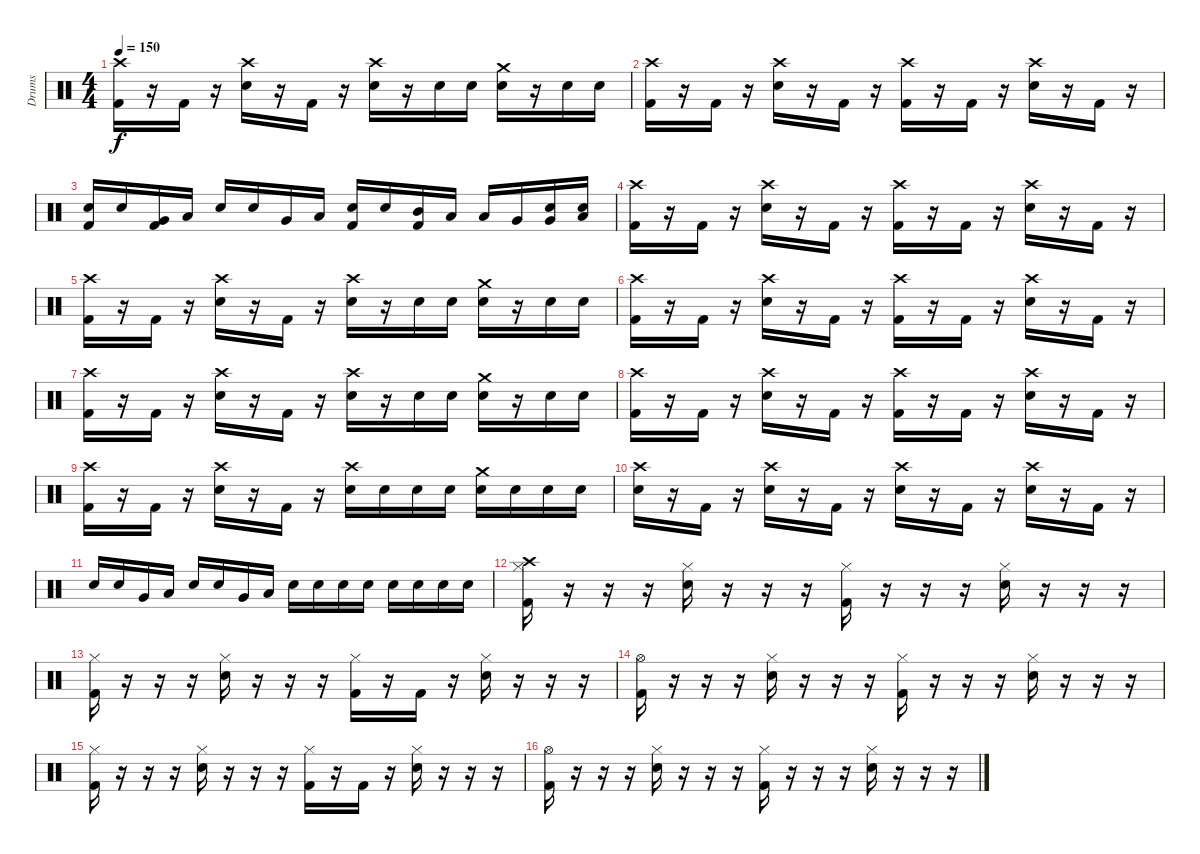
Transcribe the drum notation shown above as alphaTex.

\track ("Drums" "Drums") {instrument percussion}
\staff {score}
\articulation defaults
\ts (4 4)
\tempo 150
\clef neutral
\ks c
("Crash high (hit)" "Kick (hit) 2").16{dy f} r.16 "Kick (hit) 2".16 r.16 ("Crash high (hit)" "Snare (hit) 2").16 r.16 "Kick (hit) 2".16 r.16 ("Crash high (hit)" "Snare (hit) 2").16 r.16 "Snare (hit) 2".16 "Snare (hit) 2".16 ("Crash medium (hit)" "Snare (hit) 2").16 r.16 "Snare (hit) 2".16 "Snare (hit) 2".16 |
("Crash high (hit)" "Kick (hit) 2").16 r.16 "Kick (hit) 2".16 r.16 ("Crash high (hit)" "Snare (hit) 2").16 r.16 "Kick (hit) 2".16 r.16 ("Crash high (hit)" "Kick (hit) 2").16 r.16 "Kick (hit) 2".16 r.16 ("Crash high (hit)" "Snare (hit) 2").16 r.16 "Kick (hit) 2".16 r.16 |
("Snare (hit) 2" "Kick (hit) 2").16 "Snare (hit) 2".16 ("Very Low Tom (hit)" "Kick (hit) 2").16 "Low Floor Tom (hit)".16 "Snare (hit) 2".16 "Snare (hit) 2".16 "Very Low Tom (hit)".16 "Low Floor Tom (hit)".16 ("Snare (hit) 2" "Kick (hit) 2").16 "Snare (hit) 2".16 ("Mid Tom (hit)" "Kick (hit) 2").16 "Low Tom (hit)".16 "Low Tom (hit)".16 "Very Low Tom (hit)".16 ("Very Low Tom (hit)" "Snare (hit) 2").16 ("Low Floor Tom (hit)" "Snare (hit) 2").16 |
("Crash high (hit)" "Kick (hit) 2").16 r.16 "Kick (hit) 2".16 r.16 ("Crash high (hit)" "Snare (hit) 2").16 r.16 "Kick (hit) 2".16 r.16 ("Crash high (hit)" "Kick (hit) 2").16 r.16 "Kick (hit) 2".16 r.16 ("Crash high (hit)" "Snare (hit) 2").16 r.16 "Kick (hit) 2".16 r.16 |
("Crash high (hit)" "Kick (hit) 2").16 r.16 "Kick (hit) 2".16 r.16 ("Crash high (hit)" "Snare (hit) 2").16 r.16 "Kick (hit) 2".16 r.16 ("Crash high (hit)" "Snare (hit) 2").16 r.16 "Snare (hit) 2".16 "Snare (hit) 2".16 ("Crash medium (hit)" "Snare (hit) 2").16 r.16 "Snare (hit) 2".16 "Snare (hit) 2".16 |
("Crash high (hit)" "Kick (hit) 2").16 r.16 "Kick (hit) 2".16 r.16 ("Crash high (hit)" "Snare (hit) 2").16 r.16 "Kick (hit) 2".16 r.16 ("Crash high (hit)" "Kick (hit) 2").16 r.16 "Kick (hit) 2".16 r.16 ("Crash high (hit)" "Snare (hit) 2").16 r.16 "Kick (hit) 2".16 r.16 |
("Crash high (hit)" "Kick (hit) 2").16 r.16 "Kick (hit) 2".16 r.16 ("Crash high (hit)" "Snare (hit) 2").16 r.16 "Kick (hit) 2".16 r.16 ("Crash high (hit)" "Snare (hit) 2").16 r.16 "Snare (hit) 2".16 "Snare (hit) 2".16 ("Crash medium (hit)" "Snare (hit) 2").16 r.16 "Snare (hit) 2".16 "Snare (hit) 2".16 |
("Crash high (hit)" "Kick (hit) 2").16 r.16 "Kick (hit) 2".16 r.16 ("Crash high (hit)" "Snare (hit) 2").16 r.16 "Kick (hit) 2".16 r.16 ("Crash high (hit)" "Kick (hit) 2").16 r.16 "Kick (hit) 2".16 r.16 ("Crash high (hit)" "Snare (hit) 2").16 r.16 "Kick (hit) 2".16 r.16 |
("Crash high (hit)" "Kick (hit) 2").16 r.16 "Kick (hit) 2".16 r.16 ("Crash high (hit)" "Snare (hit) 2").16 r.16 "Kick (hit) 2".16 r.16 ("Crash high (hit)" "Snare (hit) 2").16 "Snare (hit) 2".16 "Snare (hit) 2".16 "Snare (hit) 2".16 ("Crash medium (hit)" "Snare (hit) 2").16 "Snare (hit) 2".16 "Snare (hit) 2".16 "Snare (hit) 2".16 |
("Crash high (hit)" "Snare (hit) 2").16 r.16 "Kick (hit) 2".16 r.16 ("Crash high (hit)" "Snare (hit) 2").16 r.16 "Kick (hit) 2".16 r.16 ("Crash high (hit)" "Snare (hit) 2").16 r.16 "Kick (hit) 2".16 r.16 ("Crash high (hit)" "Snare (hit) 2").16 r.16 "Kick (hit) 2".16 r.16 |
"Snare (hit) 2".16 "Snare (hit) 2".16 "Very Low Tom (hit)".16 "Low Floor Tom (hit)".16 "Snare (hit) 2".16 "Snare (hit) 2".16 "Very Low Tom (hit)".16 "Low Floor Tom (hit)".16 "Snare (hit) 2".16 "Snare (hit) 2".16 "Snare (hit) 2".16 "Snare (hit) 2".16 "Snare (hit) 2".16 "Snare (hit) 2".16 "Snare (hit) 2".16 "Snare (hit) 2".16 |
("Crash high (hit)" "Hi-Hat (closed)" "Kick (hit) 2").16 r.16 r.16 r.16 ("Hi-Hat (closed)" "Snare (hit) 2").16 r.16 r.16 r.16 ("Hi-Hat (closed)" "Kick (hit) 2").16 r.16 r.16 r.16 ("Hi-Hat (closed)" "Snare (hit) 2").16 r.16 r.16 r.16 |
("Hi-Hat (closed)" "Kick (hit) 2").16 r.16 r.16 r.16 ("Hi-Hat (closed)" "Snare (hit) 2").16 r.16 r.16 r.16 ("Hi-Hat (closed)" "Kick (hit) 2").16 r.16 "Kick (hit) 2".16 r.16 ("Hi-Hat (closed)" "Snare (hit) 2").16 r.16 r.16 r.16 |
("Hi-Hat (open)" "Kick (hit) 2").16 r.16 r.16 r.16 ("Hi-Hat (closed)" "Snare (hit) 2").16 r.16 r.16 r.16 ("Hi-Hat (closed)" "Kick (hit) 2").16 r.16 r.16 r.16 ("Hi-Hat (closed)" "Snare (hit) 2").16 r.16 r.16 r.16 |
("Hi-Hat (closed)" "Kick (hit) 2").16 r.16 r.16 r.16 ("Hi-Hat (closed)" "Snare (hit) 2").16 r.16 r.16 r.16 ("Hi-Hat (closed)" "Kick (hit) 2").16 r.16 "Kick (hit) 2".16 r.16 ("Hi-Hat (closed)" "Snare (hit) 2").16 r.16 r.16 r.16 |
("Hi-Hat (open)" "Kick (hit) 2").16 r.16 r.16 r.16 ("Hi-Hat (closed)" "Snare (hit) 2").16 r.16 r.16 r.16 ("Hi-Hat (closed)" "Kick (hit) 2").16 r.16 r.16 r.16 ("Hi-Hat (closed)" "Snare (hit) 2").16 r.16 r.16 r.16
